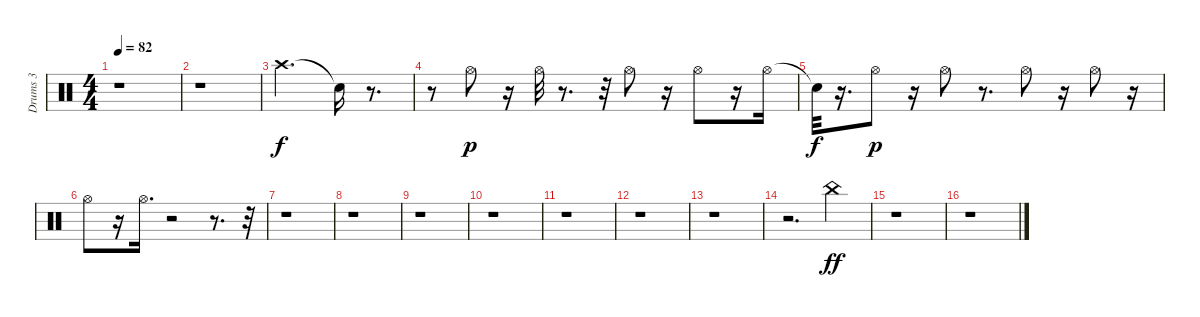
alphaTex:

\track ("Drums 3" "Drums 3") {instrument percussion}
\staff {score}
\articulation defaults
\ts (4 4)
\tempo 82
\clef neutral
\ks c
r.1{dy f} |
r.1 |
"Crash high (hit)".2{d} "Snare (hit)"{t}.16 r.8{d} |
r.8 "Hi-Hat (open)".8{dy p} r.16 "Hi-Hat (open)".32 r.8{d} r.32 "Hi-Hat (open)".8 r.16 "Hi-Hat (open)".8 r.16 "Hi-Hat (open)".16 |
"Snare (hit)"{t}.32{dy f} r.16{d} "Hi-Hat (open)".8{dy p} r.16 "Hi-Hat (open)".8 r.8{d} "Hi-Hat (open)".8 r.16 "Hi-Hat (open)".8 r.16 |
"Hi-Hat (open)".8 r.16 "Hi-Hat (open)".16{d} r.2 r.8{d} r.32 |
r.1 |
r.1 |
r.1 |
r.1 |
r.1 |
r.1 |
r.1 |
r.2{d} "China (hit)".4{dy ff} |
r.1 |
r.1
